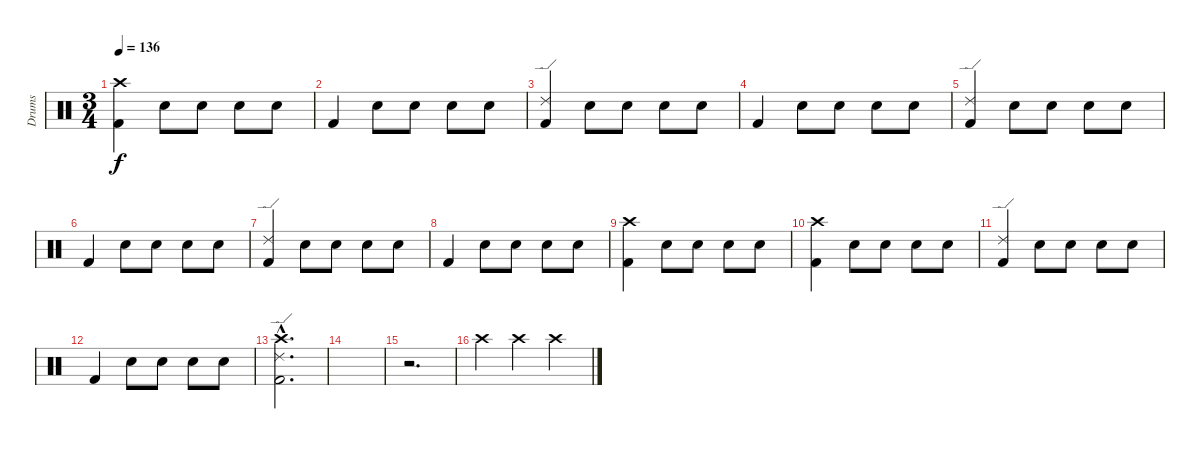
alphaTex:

\track ("Drums" "Drums") {instrument percussion}
\staff {score}
\articulation defaults
\ts (3 4)
\tempo 136
\clef neutral
\ks aminor
("Crash high (hit)" "Kick (hit) 2").4{dy f} "Snare (hit) 2".8 "Snare (hit) 2".8 "Snare (hit) 2".8 "Snare (hit) 2".8 |
"Kick (hit) 2".4 "Snare (hit) 2".8 "Snare (hit) 2".8 "Snare (hit) 2".8 "Snare (hit) 2".8 |
("Ride (edge) 2" "Kick (hit) 2").4 "Snare (hit) 2".8 "Snare (hit) 2".8 "Snare (hit) 2".8 "Snare (hit) 2".8 |
"Kick (hit) 2".4 "Snare (hit) 2".8 "Snare (hit) 2".8 "Snare (hit) 2".8 "Snare (hit) 2".8 |
("Ride (edge) 2" "Kick (hit) 2").4 "Snare (hit) 2".8 "Snare (hit) 2".8 "Snare (hit) 2".8 "Snare (hit) 2".8 |
"Kick (hit) 2".4 "Snare (hit) 2".8 "Snare (hit) 2".8 "Snare (hit) 2".8 "Snare (hit) 2".8 |
("Ride (edge) 2" "Kick (hit) 2").4 "Snare (hit) 2".8 "Snare (hit) 2".8 "Snare (hit) 2".8 "Snare (hit) 2".8 |
"Kick (hit) 2".4 "Snare (hit) 2".8 "Snare (hit) 2".8 "Snare (hit) 2".8 "Snare (hit) 2".8 |
("Crash high (hit)" "Kick (hit) 2").4 "Snare (hit) 2".8 "Snare (hit) 2".8 "Snare (hit) 2".8 "Snare (hit) 2".8 |
("Crash high (hit)" "Kick (hit) 2").4 "Snare (hit) 2".8 "Snare (hit) 2".8 "Snare (hit) 2".8 "Snare (hit) 2".8 |
("Ride (edge) 2" "Kick (hit) 2").4 "Snare (hit) 2".8 "Snare (hit) 2".8 "Snare (hit) 2".8 "Snare (hit) 2".8 |
"Kick (hit) 2".4 "Snare (hit) 2".8 "Snare (hit) 2".8 "Snare (hit) 2".8 "Snare (hit) 2".8 |
("Ride (edge) 2"{hac} "Crash high (hit)"{hac} "Kick (hit) 2"{hac}).2{d} |
|
r.2{d} |
"Crash high (hit)".4 "Crash high (hit)".4 "Crash high (hit)".4
